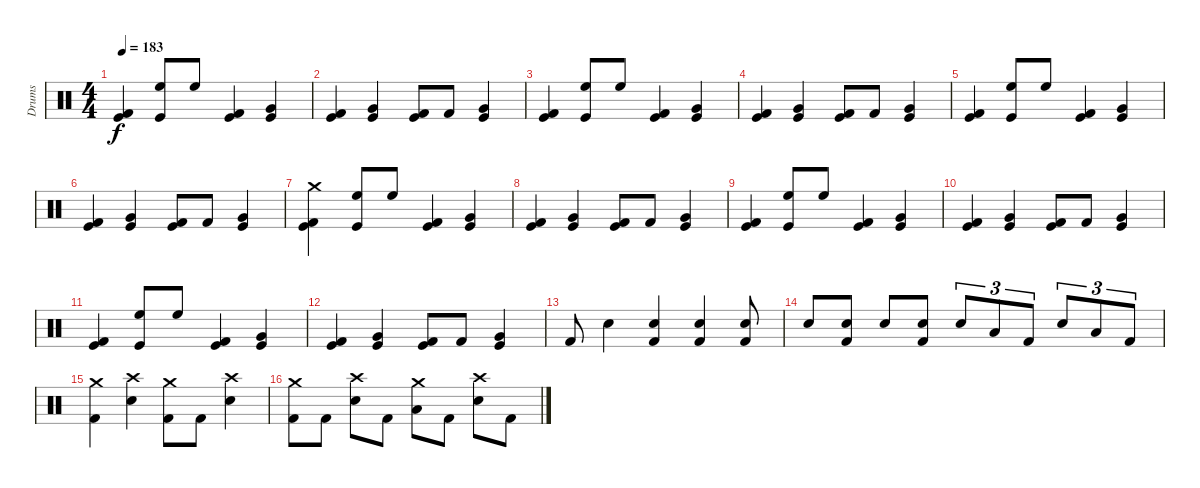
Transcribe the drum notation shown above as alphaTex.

\track ("Drums" "Drums") {instrument percussion}
\staff {score}
\articulation defaults
\ts (4 4)
\tempo 183
\clef neutral
\ks c
("Kick (hit)" "Kick (hit) 2").4{dy f} ("Kick (hit)" "High Floor Tom (hit)").8 "High Floor Tom (hit)".8 ("Kick (hit)" "Kick (hit) 2").4 ("Kick (hit)" "Very Low Tom (hit)").4 |
("Kick (hit)" "Kick (hit) 2").4 ("Kick (hit)" "Very Low Tom (hit)").4 ("Kick (hit)" "Kick (hit) 2").8 "Kick (hit) 2".8 ("Kick (hit)" "Very Low Tom (hit)").4 |
("Kick (hit)" "Kick (hit) 2").4 ("Kick (hit)" "High Floor Tom (hit)").8 "High Floor Tom (hit)".8 ("Kick (hit)" "Kick (hit) 2").4 ("Kick (hit)" "Very Low Tom (hit)").4 |
("Kick (hit)" "Kick (hit) 2").4 ("Kick (hit)" "Very Low Tom (hit)").4 ("Kick (hit)" "Kick (hit) 2").8 "Kick (hit) 2".8 ("Kick (hit)" "Very Low Tom (hit)").4 |
("Kick (hit)" "Kick (hit) 2").4 ("Kick (hit)" "High Floor Tom (hit)").8 "High Floor Tom (hit)".8 ("Kick (hit)" "Kick (hit) 2").4 ("Kick (hit)" "Very Low Tom (hit)").4 |
("Kick (hit)" "Kick (hit) 2").4 ("Kick (hit)" "Very Low Tom (hit)").4 ("Kick (hit)" "Kick (hit) 2").8 "Kick (hit) 2".8 ("Kick (hit)" "Very Low Tom (hit)").4 |
("Kick (hit)" "Crash medium (hit)" "Kick (hit) 2").4 ("Kick (hit)" "High Floor Tom (hit)").8 "High Floor Tom (hit)".8 ("Kick (hit)" "Kick (hit) 2").4 ("Kick (hit)" "Very Low Tom (hit)").4 |
("Kick (hit)" "Kick (hit) 2").4 ("Kick (hit)" "Very Low Tom (hit)").4 ("Kick (hit)" "Kick (hit) 2").8 "Kick (hit) 2".8 ("Kick (hit)" "Very Low Tom (hit)").4 |
("Kick (hit)" "Kick (hit) 2").4 ("Kick (hit)" "High Floor Tom (hit)").8 "High Floor Tom (hit)".8 ("Kick (hit)" "Kick (hit) 2").4 ("Kick (hit)" "Very Low Tom (hit)").4 |
("Kick (hit)" "Kick (hit) 2").4 ("Kick (hit)" "Very Low Tom (hit)").4 ("Kick (hit)" "Kick (hit) 2").8 "Kick (hit) 2".8 ("Kick (hit)" "Very Low Tom (hit)").4 |
("Kick (hit)" "Kick (hit) 2").4 ("Kick (hit)" "High Floor Tom (hit)").8 "High Floor Tom (hit)".8 ("Kick (hit)" "Kick (hit) 2").4 ("Kick (hit)" "Very Low Tom (hit)").4 |
("Kick (hit)" "Kick (hit) 2").4 ("Kick (hit)" "Very Low Tom (hit)").4 ("Kick (hit)" "Kick (hit) 2").8 "Kick (hit) 2".8 ("Kick (hit)" "Very Low Tom (hit)").4 |
"Kick (hit) 2".8 "Snare (hit) 2".4 ("Kick (hit) 2" "Snare (hit) 2").4 ("Kick (hit) 2" "Snare (hit) 2").4 ("Kick (hit) 2" "Snare (hit) 2").8 |
"Snare (hit) 2".8 ("Kick (hit) 2" "Snare (hit) 2").8 "Snare (hit) 2".8 ("Kick (hit) 2" "Snare (hit) 2").8 "Snare (hit) 2".8{tu (3 2)} "Low Tom (hit)".8{tu (3 2)} "Kick (hit) 2".8{tu (3 2)} "Snare (hit) 2".8{tu (3 2)} "Low Tom (hit)".8{tu (3 2)} "Kick (hit) 2".8{tu (3 2)} |
("Kick (hit) 2" "Crash medium (hit)").4 ("Snare (hit) 2" "Crash high (hit)").4 ("Kick (hit) 2" "Crash medium (hit)").8 "Kick (hit) 2".8 ("Snare (hit) 2" "Crash high (hit)").4 |
("Kick (hit) 2" "Crash medium (hit)").8 "Kick (hit) 2".8 ("Snare (hit) 2" "Crash high (hit)").8 "Kick (hit) 2".8 ("Low Tom (hit)" "Crash medium (hit)").8 "Kick (hit) 2".8 ("Snare (hit) 2" "Crash high (hit)").8 "Kick (hit) 2".8
